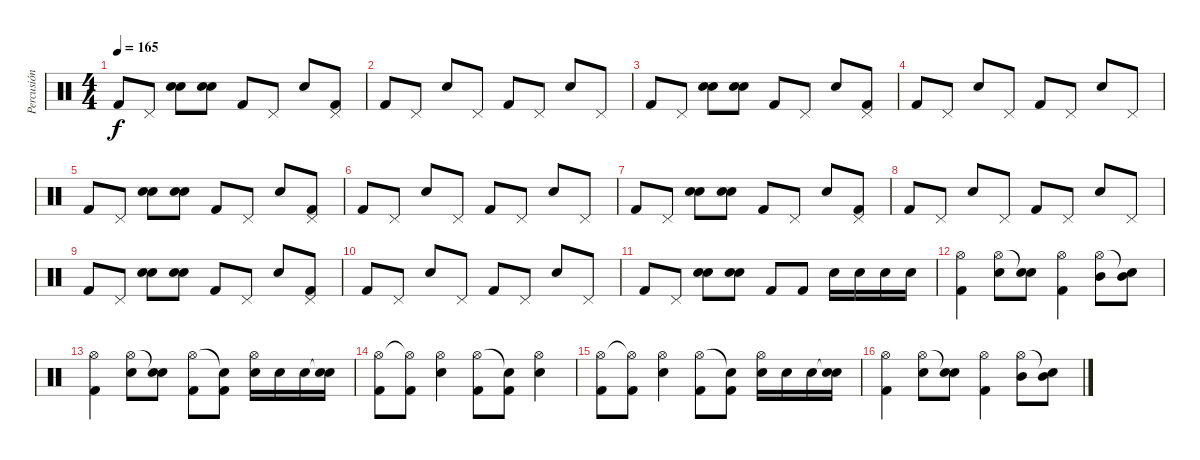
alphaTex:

\track ("Percusión" "Percusión") {instrument percussion}
\staff {score}
\articulation defaults
\ts (4 4)
\tempo 165
\clef neutral
\ks c "Kick (hit) 2".8{dy f} "Pedal Hi-Hat (hit)".8
("Snare (hit) 2" "Snare (hit) 2").8 ("Snare (hit) 2" "Snare (hit) 2").8 "Kick (hit) 2".8 "Pedal Hi-Hat (hit)".8 "Snare (hit) 2".8 ("Kick (hit) 2" "Pedal Hi-Hat (hit)").8 |
"Kick (hit) 2".8 "Pedal Hi-Hat (hit)".8 "Snare (hit) 2".8 "Pedal Hi-Hat (hit)".8 "Kick (hit) 2".8 "Pedal Hi-Hat (hit)".8 "Snare (hit) 2".8 "Pedal Hi-Hat (hit)".8 |
"Kick (hit) 2".8 "Pedal Hi-Hat (hit)".8 ("Snare (hit) 2" "Snare (hit) 2").8 ("Snare (hit) 2" "Snare (hit) 2").8 "Kick (hit) 2".8 "Pedal Hi-Hat (hit)".8 "Snare (hit) 2".8 ("Kick (hit) 2" "Pedal Hi-Hat (hit)").8 |
"Kick (hit) 2".8 "Pedal Hi-Hat (hit)".8 "Snare (hit) 2".8 "Pedal Hi-Hat (hit)".8 "Kick (hit) 2".8 "Pedal Hi-Hat (hit)".8 "Snare (hit) 2".8 "Pedal Hi-Hat (hit)".8 |
"Kick (hit) 2".8 "Pedal Hi-Hat (hit)".8 ("Snare (hit) 2" "Snare (hit) 2").8 ("Snare (hit) 2" "Snare (hit) 2").8 "Kick (hit) 2".8 "Pedal Hi-Hat (hit)".8 "Snare (hit) 2".8 ("Kick (hit) 2" "Pedal Hi-Hat (hit)").8 |
"Kick (hit) 2".8 "Pedal Hi-Hat (hit)".8 "Snare (hit) 2".8 "Pedal Hi-Hat (hit)".8 "Kick (hit) 2".8 "Pedal Hi-Hat (hit)".8 "Snare (hit) 2".8 "Pedal Hi-Hat (hit)".8 |
"Kick (hit) 2".8 "Pedal Hi-Hat (hit)".8 ("Snare (hit) 2" "Snare (hit) 2").8 ("Snare (hit) 2" "Snare (hit) 2").8 "Kick (hit) 2".8 "Pedal Hi-Hat (hit)".8 "Snare (hit) 2".8 ("Kick (hit) 2" "Pedal Hi-Hat (hit)").8 |
"Kick (hit) 2".8 "Pedal Hi-Hat (hit)".8 "Snare (hit) 2".8 "Pedal Hi-Hat (hit)".8 "Kick (hit) 2".8 "Pedal Hi-Hat (hit)".8 "Snare (hit) 2".8 "Pedal Hi-Hat (hit)".8 |
"Kick (hit) 2".8 "Pedal Hi-Hat (hit)".8 ("Snare (hit) 2" "Snare (hit) 2").8 ("Snare (hit) 2" "Snare (hit) 2").8 "Kick (hit) 2".8 "Pedal Hi-Hat (hit)".8 "Snare (hit) 2".8 ("Kick (hit) 2" "Pedal Hi-Hat (hit)").8 |
"Kick (hit) 2".8 "Pedal Hi-Hat (hit)".8 "Snare (hit) 2".8 "Pedal Hi-Hat (hit)".8 "Kick (hit) 2".8 "Pedal Hi-Hat (hit)".8 "Snare (hit) 2".8 "Pedal Hi-Hat (hit)".8 |
"Kick (hit) 2".8 "Pedal Hi-Hat (hit)".8 ("Snare (hit) 2" "Snare (hit) 2").8 ("Snare (hit) 2" "Snare (hit) 2").8 "Kick (hit) 2".8 "Kick (hit) 2".8 "Snare (hit) 2".16 "Snare (hit) 2".16 "Snare (hit) 2".16 "Snare (hit) 2".16 |
("Hi-Hat (open)" "Kick (hit) 2").4 ("Hi-Hat (open)" "Snare (hit) 2").8 ("Snare (hit)"{t} "Snare (hit) 2").8 ("Hi-Hat (open)" "Kick (hit) 2").4 ("Hi-Hat (open)" "Mid Tom (hit)").8 ("Snare (hit)"{t} "Mid Tom (hit)").8 |
("Hi-Hat (open)" "Kick (hit) 2").4 ("Hi-Hat (open)" "Snare (hit) 2").8 ("Snare (hit)"{t} "Snare (hit) 2").8 ("Hi-Hat (open)" "Kick (hit) 2").8 ("Snare (hit)"{t} "Kick (hit) 2").8 ("Hi-Hat (open)" "Snare (hit) 2").16 "Snare (hit) 2".16 "Snare (hit) 2".16 ("Snare (hit)"{t} "Snare (hit) 2").16 |
("Hi-Hat (open)" "Kick (hit) 2").8 ("Hi-Hat (open)"{t} "Kick (hit) 2").8 ("Hi-Hat (open)" "Snare (hit) 2").4 ("Hi-Hat (open)" "Kick (hit) 2").8 ("Snare (hit)"{t} "Kick (hit) 2").8 ("Hi-Hat (open)" "Snare (hit) 2").4 |
("Hi-Hat (open)" "Kick (hit) 2").8 ("Hi-Hat (open)"{t} "Kick (hit) 2").8 ("Hi-Hat (open)" "Snare (hit) 2").4 ("Hi-Hat (open)" "Kick (hit) 2").8 ("Snare (hit)"{t} "Kick (hit) 2").8 ("Hi-Hat (open)" "Snare (hit) 2").16 "Snare (hit) 2".16 "Snare (hit) 2".16 ("Snare (hit)"{t} "Snare (hit) 2").16 |
("Hi-Hat (open)" "Kick (hit) 2").4 ("Hi-Hat (open)" "Snare (hit) 2").8 ("Snare (hit)"{t} "Snare (hit) 2").8 ("Hi-Hat (open)" "Kick (hit) 2").4 ("Hi-Hat (open)" "Mid Tom (hit)").8 ("Snare (hit)"{t} "Mid Tom (hit)").8
